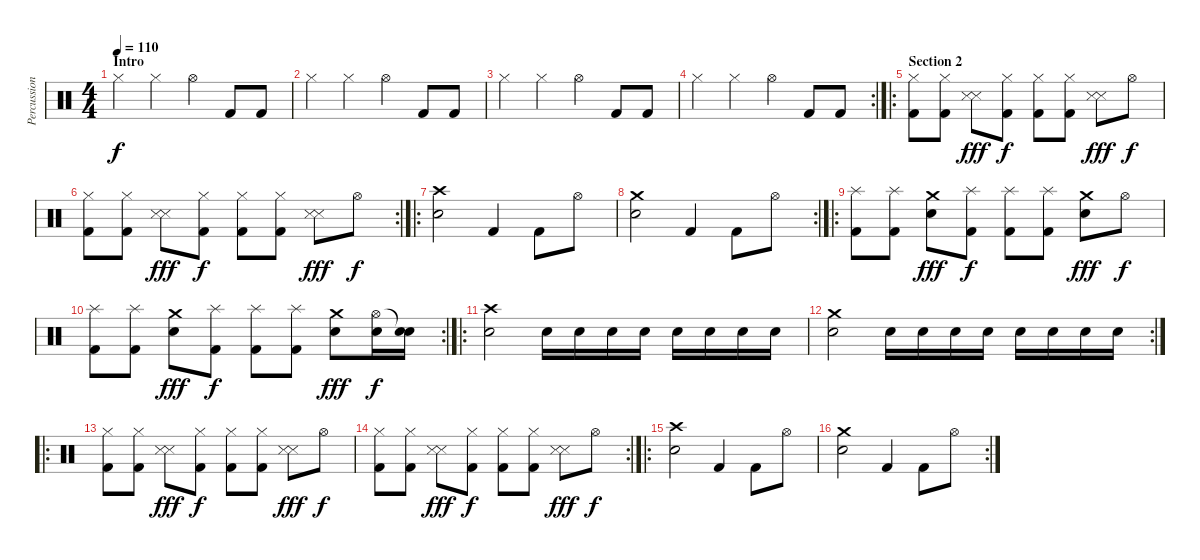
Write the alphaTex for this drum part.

\track ("Percussions" "Percussion") {instrument percussion}
\staff {score}
\articulation defaults
\ts (4 4)
\section ("" "Intro")
\tempo 110
\clef neutral
\ks c "Hi-Hat (closed)".4{dy f} "Hi-Hat (closed)".4 "Hi-Hat (open)".4 "Kick (hit) 2".8 "Kick (hit) 2".8
|
"Hi-Hat (closed)".4 "Hi-Hat (closed)".4 "Hi-Hat (open)".4 "Kick (hit) 2".8 "Kick (hit) 2".8 |
"Hi-Hat (closed)".4 "Hi-Hat (closed)".4 "Hi-Hat (open)".4 "Kick (hit) 2".8 "Kick (hit) 2".8 |
\rc 2 "Hi-Hat (closed)".4 "Hi-Hat (closed)".4 "Hi-Hat (open)".4 "Kick (hit) 2".8 "Kick (hit) 2".8
|
\ro
\section ("" "Section 2")
("Hi-Hat (closed)" "Kick (hit) 2").8 ("Hi-Hat (closed)" "Kick (hit) 2").8 ("Snare (side stick) 3" "Snare (side stick) 3").8{dy fff} ("Hi-Hat (closed)" "Kick (hit) 2").8{dy f} ("Hi-Hat (closed)" "Kick (hit) 2").8 ("Hi-Hat (closed)" "Kick (hit) 2").8 ("Snare (side stick) 3" "Snare (side stick) 3").8{dy fff} "Hi-Hat (open)".8{dy f} |
\rc 2
("Hi-Hat (closed)" "Kick (hit) 2").8 ("Hi-Hat (closed)" "Kick (hit) 2").8 ("Snare (side stick) 3" "Snare (side stick) 3").8{dy fff} ("Hi-Hat (closed)" "Kick (hit) 2").8{dy f} ("Hi-Hat (closed)" "Kick (hit) 2").8 ("Hi-Hat (closed)" "Kick (hit) 2").8 ("Snare (side stick) 3" "Snare (side stick) 3").8{dy fff} "Hi-Hat (open)".8{dy f} |
\ro
("Crash high (hit)" "Snare (hit) 2").2 "Kick (hit) 2".4 "Kick (hit) 2".8 "Hi-Hat (open)".8 |
\rc 2
("Crash medium (hit)" "Snare (hit) 2").2 "Kick (hit) 2".4 "Kick (hit) 2".8 "Hi-Hat (open)".8 |
\ro
("Splash (hit)" "Kick (hit) 2").8 ("Splash (hit)" "Kick (hit) 2").8 ("Crash medium (hit)" "Snare (hit) 2").8{dy fff} ("Splash (hit)" "Kick (hit) 2").8{dy f} ("Splash (hit)" "Kick (hit) 2").8 ("Splash (hit)" "Kick (hit) 2").8 ("Crash medium (hit)" "Snare (hit) 2").8{dy fff} "Hi-Hat (open)".8{dy f} |
\rc 2
("Splash (hit)" "Kick (hit) 2").8 ("Splash (hit)" "Kick (hit) 2").8 ("Crash medium (hit)" "Snare (hit) 2").8{dy fff} ("Splash (hit)" "Kick (hit) 2").8{dy f} ("Splash (hit)" "Kick (hit) 2").8 ("Splash (hit)" "Kick (hit) 2").8 ("Crash medium (hit)" "Snare (hit) 2").8{dy fff} ("Hi-Hat (open)" "Snare (hit) 2").16{dy f} ("Snare (hit)"{t} "Snare (hit) 2").16 |
\ro
("Crash high (hit)" "Snare (hit) 2").2 "Snare (hit) 2".16 "Snare (hit) 2".16 "Snare (hit) 2".16 "Snare (hit) 2".16 "Snare (hit) 2".16 "Snare (hit) 2".16 "Snare (hit) 2".16 "Snare (hit) 2".16 |
\rc 2
("Crash medium (hit)" "Snare (hit) 2").2 "Snare (hit) 2".16 "Snare (hit) 2".16 "Snare (hit) 2".16 "Snare (hit) 2".16 "Snare (hit) 2".16 "Snare (hit) 2".16 "Snare (hit) 2".16 "Snare (hit) 2".16 |
\ro
("Hi-Hat (closed)" "Kick (hit) 2").8 ("Hi-Hat (closed)" "Kick (hit) 2").8 ("Snare (side stick) 3" "Snare (side stick) 3").8{dy fff} ("Hi-Hat (closed)" "Kick (hit) 2").8{dy f} ("Hi-Hat (closed)" "Kick (hit) 2").8 ("Hi-Hat (closed)" "Kick (hit) 2").8 ("Snare (side stick) 3" "Snare (side stick) 3").8{dy fff} "Hi-Hat (open)".8{dy f} |
\rc 2
("Hi-Hat (closed)" "Kick (hit) 2").8 ("Hi-Hat (closed)" "Kick (hit) 2").8 ("Snare (side stick) 3" "Snare (side stick) 3").8{dy fff} ("Hi-Hat (closed)" "Kick (hit) 2").8{dy f} ("Hi-Hat (closed)" "Kick (hit) 2").8 ("Hi-Hat (closed)" "Kick (hit) 2").8 ("Snare (side stick) 3" "Snare (side stick) 3").8{dy fff} "Hi-Hat (open)".8{dy f} |
\ro
("Crash high (hit)" "Snare (hit) 2").2 "Kick (hit) 2".4 "Kick (hit) 2".8 "Hi-Hat (open)".8 |
\rc 2
("Crash medium (hit)" "Snare (hit) 2").2 "Kick (hit) 2".4 "Kick (hit) 2".8 "Hi-Hat (open)".8
